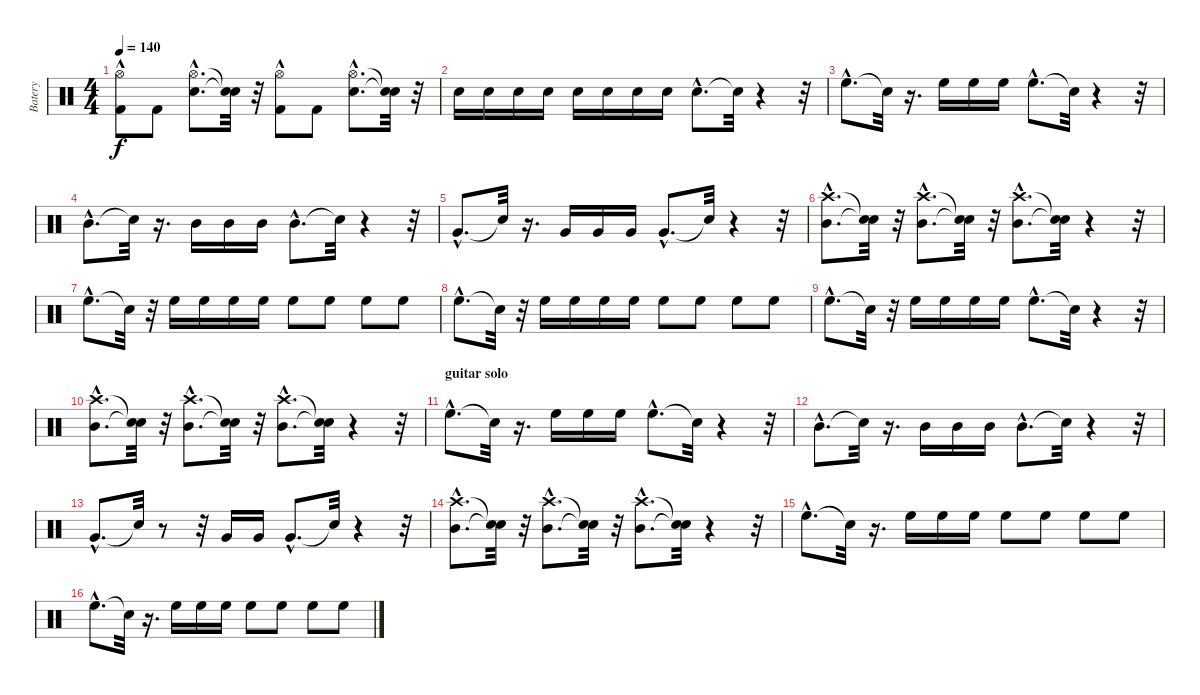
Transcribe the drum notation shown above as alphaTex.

\track ("Batery" "Batery") {instrument percussion}
\staff {score}
\articulation defaults
\ts (4 4)
\tempo 140
\clef neutral
\ks c
("Hi-Hat (open)"{hac} "Kick (hit) 2").8{dy f} "Kick (hit) 2".8 ("Hi-Hat (open)"{hac} "Snare (hit) 2"{hac}).8{d} ("Snare (hit)"{t} "Snare (hit)"{t}).32 r.32 ("Hi-Hat (open)"{hac} "Kick (hit) 2").8 "Kick (hit) 2".8 ("Hi-Hat (open)"{hac} "Snare (hit) 2"{hac}).8{d} ("Snare (hit)"{t} "Snare (hit)"{t}).32 r.32 |
"Snare (hit) 2".16 "Snare (hit) 2".16 "Snare (hit) 2".16 "Snare (hit) 2".16 "Snare (hit) 2".16 "Snare (hit) 2".16 "Snare (hit) 2".16 "Snare (hit) 2".16 "Snare (hit) 2"{hac}.8{d} "Snare (hit)"{t}.32 r.4 r.32 |
"High Floor Tom (hit)"{hac}.8{d} "Snare (hit)"{t}.32 r.16{d} "High Floor Tom (hit)".16 "High Floor Tom (hit)".16 "High Floor Tom (hit)".16 "High Floor Tom (hit)"{hac}.8{d} "Snare (hit)"{t}.32 r.4 r.32 |
"Mid Tom (hit)"{hac}.8{d} "Snare (hit)"{t}.32 r.16{d} "Mid Tom (hit)".16 "Mid Tom (hit)".16 "Mid Tom (hit)".16 "Mid Tom (hit)"{hac}.8{d} "Snare (hit)"{t}.32 r.4 r.32 |
"Very Low Tom (hit)"{hac}.8{d} "Snare (hit)"{t}.32 r.16{d} "Very Low Tom (hit)".16 "Very Low Tom (hit)".16 "Very Low Tom (hit)".16 "Very Low Tom (hit)"{hac}.8{d} "Snare (hit)"{t}.32 r.4 r.32 |
("Mid Tom (hit)"{hac} "Crash high (hit)"{hac}).8{d} ("Snare (hit)"{t} "Snare (hit)"{t}).32 r.32 ("Mid Tom (hit)"{hac} "Crash high (hit)"{hac}).8{d} ("Snare (hit)"{t} "Snare (hit)"{t}).32 r.32 ("Mid Tom (hit)"{hac} "Crash high (hit)"{hac}).8{d} ("Snare (hit)"{t} "Snare (hit)"{t}).32 r.4 r.32 |
"High Floor Tom (hit)"{hac}.8{d} "Snare (hit)"{t}.32 r.32 "High Floor Tom (hit)".16 "High Floor Tom (hit)".16 "High Floor Tom (hit)".16 "High Floor Tom (hit)".16 "High Floor Tom (hit)".8 "High Floor Tom (hit)".8 "High Floor Tom (hit)".8 "High Floor Tom (hit)".8 |
"High Floor Tom (hit)"{hac}.8{d} "Snare (hit)"{t}.32 r.32 "High Floor Tom (hit)".16 "High Floor Tom (hit)".16 "High Floor Tom (hit)".16 "High Floor Tom (hit)".16 "High Floor Tom (hit)".8 "High Floor Tom (hit)".8 "High Floor Tom (hit)".8 "High Floor Tom (hit)".8 |
"High Floor Tom (hit)"{hac}.8{d} "Snare (hit)"{t}.32 r.32 "High Floor Tom (hit)".16 "High Floor Tom (hit)".16 "High Floor Tom (hit)".16 "High Floor Tom (hit)".16 "High Floor Tom (hit)"{hac}.8{d} "Snare (hit)"{t}.32 r.4 r.32 |
("Mid Tom (hit)"{hac} "Crash high (hit)"{hac}).8{d} ("Snare (hit)"{t} "Snare (hit)"{t}).32 r.32 ("Mid Tom (hit)"{hac} "Crash high (hit)"{hac}).8{d} ("Snare (hit)"{t} "Snare (hit)"{t}).32 r.32 ("Mid Tom (hit)"{hac} "Crash high (hit)"{hac}).8{d} ("Snare (hit)"{t} "Snare (hit)"{t}).32 r.4 r.32 |
\section ("" "guitar solo")
"High Floor Tom (hit)"{hac}.8{d} "Snare (hit)"{t}.32 r.16{d} "High Floor Tom (hit)".16 "High Floor Tom (hit)".16 "High Floor Tom (hit)".16 "High Floor Tom (hit)"{hac}.8{d} "Snare (hit)"{t}.32 r.4 r.32 |
"Mid Tom (hit)"{hac}.8{d} "Snare (hit)"{t}.32 r.16{d} "Mid Tom (hit)".16 "Mid Tom (hit)".16 "Mid Tom (hit)".16 "Mid Tom (hit)"{hac}.8{d} "Snare (hit)"{t}.32 r.4 r.32 |
"Very Low Tom (hit)"{hac}.8{d} "Snare (hit)"{t}.32 r.8 r.32 "Very Low Tom (hit)".16 "Very Low Tom (hit)".16 "Very Low Tom (hit)"{hac}.8{d} "Snare (hit)"{t}.32 r.4 r.32 |
("Mid Tom (hit)"{hac} "Crash high (hit)"{hac}).8{d} ("Snare (hit)"{t} "Snare (hit)"{t}).32 r.32 ("Mid Tom (hit)"{hac} "Crash high (hit)"{hac}).8{d} ("Snare (hit)"{t} "Snare (hit)"{t}).32 r.32 ("Mid Tom (hit)"{hac} "Crash high (hit)"{hac}).8{d} ("Snare (hit)"{t} "Snare (hit)"{t}).32 r.4 r.32 |
"High Floor Tom (hit)"{hac}.8{d} "Snare (hit)"{t}.32 r.16{d} "High Floor Tom (hit)".16 "High Floor Tom (hit)".16 "High Floor Tom (hit)".16 "High Floor Tom (hit)".8 "High Floor Tom (hit)".8 "High Floor Tom (hit)".8 "High Floor Tom (hit)".8 |
"High Floor Tom (hit)"{hac}.8{d} "Snare (hit)"{t}.32 r.16{d} "High Floor Tom (hit)".16 "High Floor Tom (hit)".16 "High Floor Tom (hit)".16 "High Floor Tom (hit)".8 "High Floor Tom (hit)".8 "High Floor Tom (hit)".8 "High Floor Tom (hit)".8
